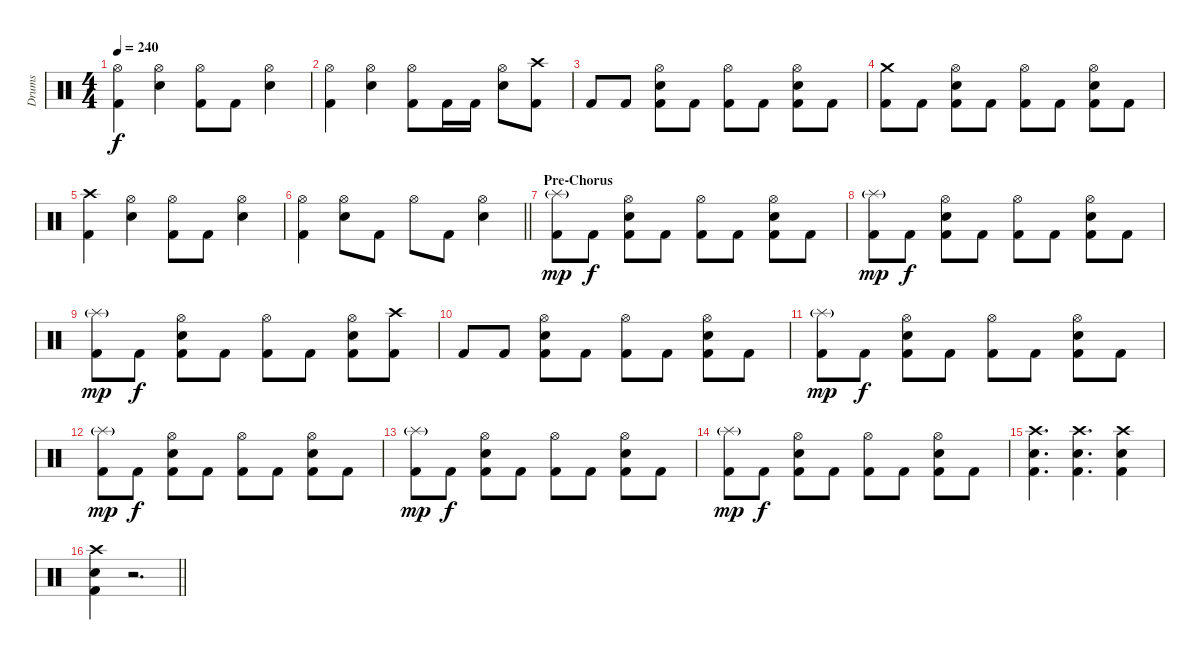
\track ("Drums" "Drums") {instrument percussion}
\staff {score}
\articulation defaults
\ts (4 4)
\tempo 240
\clef neutral
\ks c
("Hi-Hat (open)" "Kick (hit) 2").4{dy f} ("Hi-Hat (open)" "Snare (hit) 2").4 ("Hi-Hat (open)" "Kick (hit) 2").8 "Kick (hit) 2".8 ("Hi-Hat (open)" "Snare (hit) 2").4 |
("Hi-Hat (open)" "Kick (hit) 2").4 ("Hi-Hat (open)" "Snare (hit) 2").4 ("Hi-Hat (open)" "Kick (hit) 2").8 "Kick (hit) 2".16 "Kick (hit) 2".16 ("Hi-Hat (open)" "Snare (hit) 2").8 ("Crash high (hit)" "Kick (hit) 2").8 |
"Kick (hit) 2".8 "Kick (hit) 2".8 ("Hi-Hat (open)" "Snare (hit) 2" "Kick (hit) 2").8 "Kick (hit) 2".8 ("Hi-Hat (open)" "Kick (hit) 2").8 "Kick (hit) 2".8 ("Hi-Hat (open)" "Snare (hit) 2" "Kick (hit) 2").8 "Kick (hit) 2".8 |
("Crash medium (hit)" "Kick (hit) 2").8 "Kick (hit) 2".8 ("Hi-Hat (open)" "Snare (hit) 2" "Kick (hit) 2").8 "Kick (hit) 2".8 ("Hi-Hat (open)" "Kick (hit) 2").8 "Kick (hit) 2".8 ("Hi-Hat (open)" "Snare (hit) 2" "Kick (hit) 2").8 "Kick (hit) 2".8 |
("Crash high (hit)" "Kick (hit) 2").4 ("Hi-Hat (open)" "Snare (hit) 2").4 ("Hi-Hat (open)" "Kick (hit) 2").8 "Kick (hit) 2".8 ("Hi-Hat (open)" "Snare (hit) 2").4 |
\barLineRight lightlight
("Hi-Hat (open)" "Kick (hit) 2").4 ("Hi-Hat (open)" "Snare (hit) 2").8 "Kick (hit) 2".8 "Hi-Hat (open)".8 "Kick (hit) 2".8 ("Hi-Hat (open)" "Snare (hit) 2").4 |
\section ("" "Pre-Chorus")
("Splash (hit)"{g} "Kick (hit) 2").8{dy mp} "Kick (hit) 2".8{dy f} ("Hi-Hat (open)" "Snare (hit) 2" "Kick (hit) 2").8 "Kick (hit) 2".8 ("Hi-Hat (open)" "Kick (hit) 2").8 "Kick (hit) 2".8 ("Hi-Hat (open)" "Snare (hit) 2" "Kick (hit) 2").8 "Kick (hit) 2".8 |
("Splash (hit)"{g} "Kick (hit) 2").8{dy mp} "Kick (hit) 2".8{dy f} ("Hi-Hat (open)" "Snare (hit) 2" "Kick (hit) 2").8 "Kick (hit) 2".8 ("Hi-Hat (open)" "Kick (hit) 2").8 "Kick (hit) 2".8 ("Hi-Hat (open)" "Snare (hit) 2" "Kick (hit) 2").8 "Kick (hit) 2".8 |
("Splash (hit)"{g} "Kick (hit) 2").8{dy mp} "Kick (hit) 2".8{dy f} ("Hi-Hat (open)" "Snare (hit) 2" "Kick (hit) 2").8 "Kick (hit) 2".8 ("Hi-Hat (open)" "Kick (hit) 2").8 "Kick (hit) 2".8 ("Hi-Hat (open)" "Snare (hit) 2" "Kick (hit) 2").8 ("Crash high (hit)" "Kick (hit) 2").8 |
"Kick (hit) 2".8 "Kick (hit) 2".8 ("Hi-Hat (open)" "Snare (hit) 2" "Kick (hit) 2").8 "Kick (hit) 2".8 ("Hi-Hat (open)" "Kick (hit) 2").8 "Kick (hit) 2".8 ("Hi-Hat (open)" "Snare (hit) 2" "Kick (hit) 2").8 "Kick (hit) 2".8 |
("Splash (hit)"{g} "Kick (hit) 2").8{dy mp} "Kick (hit) 2".8{dy f} ("Hi-Hat (open)" "Snare (hit) 2" "Kick (hit) 2").8 "Kick (hit) 2".8 ("Hi-Hat (open)" "Kick (hit) 2").8 "Kick (hit) 2".8 ("Hi-Hat (open)" "Snare (hit) 2" "Kick (hit) 2").8 "Kick (hit) 2".8 |
("Splash (hit)"{g} "Kick (hit) 2").8{dy mp} "Kick (hit) 2".8{dy f} ("Hi-Hat (open)" "Snare (hit) 2" "Kick (hit) 2").8 "Kick (hit) 2".8 ("Hi-Hat (open)" "Kick (hit) 2").8 "Kick (hit) 2".8 ("Hi-Hat (open)" "Snare (hit) 2" "Kick (hit) 2").8 "Kick (hit) 2".8 |
("Splash (hit)"{g} "Kick (hit) 2").8{dy mp} "Kick (hit) 2".8{dy f} ("Hi-Hat (open)" "Snare (hit) 2" "Kick (hit) 2").8 "Kick (hit) 2".8 ("Hi-Hat (open)" "Kick (hit) 2").8 "Kick (hit) 2".8 ("Hi-Hat (open)" "Snare (hit) 2" "Kick (hit) 2").8 "Kick (hit) 2".8 |
("Splash (hit)"{g} "Kick (hit) 2").8{dy mp} "Kick (hit) 2".8{dy f} ("Hi-Hat (open)" "Snare (hit) 2" "Kick (hit) 2").8 "Kick (hit) 2".8 ("Hi-Hat (open)" "Kick (hit) 2").8 "Kick (hit) 2".8 ("Hi-Hat (open)" "Snare (hit) 2" "Kick (hit) 2").8 "Kick (hit) 2".8 |
("Crash high (hit)" "Snare (hit) 2" "Kick (hit) 2").4{d} ("Crash high (hit)" "Snare (hit) 2" "Kick (hit) 2").4{d} ("Crash high (hit)" "Snare (hit) 2" "Kick (hit) 2").4 |
\barLineRight lightlight
("Crash high (hit)" "Snare (hit) 2" "Kick (hit) 2").4 r.2{d}
